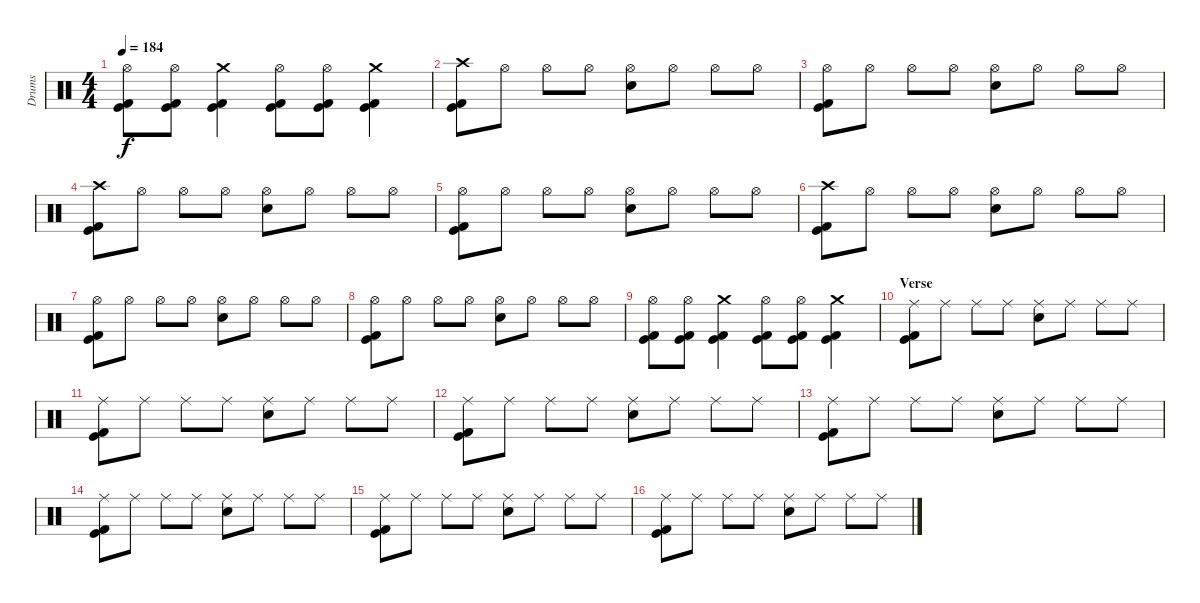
\track ("Drums" "Drums") {instrument percussion}
\staff {score}
\articulation defaults
\ts (4 4)
\tempo 184
\clef neutral
\ks c
("Hi-Hat (open)" "Kick (hit)" "Kick (hit) 2").8{dy f} ("Hi-Hat (open)" "Kick (hit)" "Kick (hit) 2").8 ("Crash medium (hit)" "Kick (hit)" "Kick (hit) 2").4 ("Hi-Hat (open)" "Kick (hit)" "Kick (hit) 2").8 ("Hi-Hat (open)" "Kick (hit)" "Kick (hit) 2").8 ("Crash medium (hit)" "Kick (hit)" "Kick (hit) 2").4 |
("Crash high (hit)" "Kick (hit)" "Kick (hit) 2").8 "Hi-Hat (open)".8 "Hi-Hat (open)".8 "Hi-Hat (open)".8 ("Hi-Hat (open)" "Electric Snare (hit)").8 "Hi-Hat (open)".8 "Hi-Hat (open)".8 "Hi-Hat (open)".8 |
("Hi-Hat (open)" "Kick (hit)" "Kick (hit) 2").8 "Hi-Hat (open)".8 "Hi-Hat (open)".8 "Hi-Hat (open)".8 ("Hi-Hat (open)" "Electric Snare (hit)").8 "Hi-Hat (open)".8 "Hi-Hat (open)".8 "Hi-Hat (open)".8 |
("Crash high (hit)" "Kick (hit)" "Kick (hit) 2").8 "Hi-Hat (open)".8 "Hi-Hat (open)".8 "Hi-Hat (open)".8 ("Hi-Hat (open)" "Electric Snare (hit)").8 "Hi-Hat (open)".8 "Hi-Hat (open)".8 "Hi-Hat (open)".8 |
("Hi-Hat (open)" "Kick (hit)" "Kick (hit) 2").8 "Hi-Hat (open)".8 "Hi-Hat (open)".8 "Hi-Hat (open)".8 ("Hi-Hat (open)" "Electric Snare (hit)").8 "Hi-Hat (open)".8 "Hi-Hat (open)".8 "Hi-Hat (open)".8 |
("Crash high (hit)" "Kick (hit)" "Kick (hit) 2").8 "Hi-Hat (open)".8 "Hi-Hat (open)".8 "Hi-Hat (open)".8 ("Hi-Hat (open)" "Electric Snare (hit)").8 "Hi-Hat (open)".8 "Hi-Hat (open)".8 "Hi-Hat (open)".8 |
("Hi-Hat (open)" "Kick (hit)" "Kick (hit) 2").8 "Hi-Hat (open)".8 "Hi-Hat (open)".8 "Hi-Hat (open)".8 ("Hi-Hat (open)" "Electric Snare (hit)").8 "Hi-Hat (open)".8 "Hi-Hat (open)".8 "Hi-Hat (open)".8 |
("Hi-Hat (open)" "Kick (hit)" "Kick (hit) 2").8 "Hi-Hat (open)".8 "Hi-Hat (open)".8 "Hi-Hat (open)".8 ("Hi-Hat (open)" "Electric Snare (hit)").8 "Hi-Hat (open)".8 "Hi-Hat (open)".8 "Hi-Hat (open)".8 |
("Hi-Hat (open)" "Kick (hit)" "Kick (hit) 2").8 ("Hi-Hat (open)" "Kick (hit)" "Kick (hit) 2").8 ("Crash medium (hit)" "Kick (hit)" "Kick (hit) 2").4 ("Hi-Hat (open)" "Kick (hit)" "Kick (hit) 2").8 ("Hi-Hat (open)" "Kick (hit)" "Kick (hit) 2").8 ("Crash medium (hit)" "Kick (hit)" "Kick (hit) 2").4 |
\section ("" "Verse")
("Ride (middle)" "Kick (hit)" "Kick (hit) 2").8 "Ride (middle)".8 "Ride (middle)".8 "Ride (middle)".8 ("Ride (middle)" "Electric Snare (hit)").8 "Ride (middle)".8 "Ride (middle)".8 "Ride (middle)".8 |
("Ride (middle)" "Kick (hit)" "Kick (hit) 2").8 "Ride (middle)".8 "Ride (middle)".8 "Ride (middle)".8 ("Ride (middle)" "Electric Snare (hit)").8 "Ride (middle)".8 "Ride (middle)".8 "Ride (middle)".8 |
("Ride (middle)" "Kick (hit)" "Kick (hit) 2").8 "Ride (middle)".8 "Ride (middle)".8 "Ride (middle)".8 ("Ride (middle)" "Electric Snare (hit)").8 "Ride (middle)".8 "Ride (middle)".8 "Ride (middle)".8 |
("Ride (middle)" "Kick (hit)" "Kick (hit) 2").8 "Ride (middle)".8 "Ride (middle)".8 "Ride (middle)".8 ("Ride (middle)" "Electric Snare (hit)").8 "Ride (middle)".8 "Ride (middle)".8 "Ride (middle)".8 |
("Ride (middle)" "Kick (hit)" "Kick (hit) 2").8 "Ride (middle)".8 "Ride (middle)".8 "Ride (middle)".8 ("Ride (middle)" "Electric Snare (hit)").8 "Ride (middle)".8 "Ride (middle)".8 "Ride (middle)".8 |
("Ride (middle)" "Kick (hit)" "Kick (hit) 2").8 "Ride (middle)".8 "Ride (middle)".8 "Ride (middle)".8 ("Ride (middle)" "Electric Snare (hit)").8 "Ride (middle)".8 "Ride (middle)".8 "Ride (middle)".8 |
("Ride (middle)" "Kick (hit)" "Kick (hit) 2").8 "Ride (middle)".8 "Ride (middle)".8 "Ride (middle)".8 ("Ride (middle)" "Electric Snare (hit)").8 "Ride (middle)".8 "Ride (middle)".8 "Ride (middle)".8
